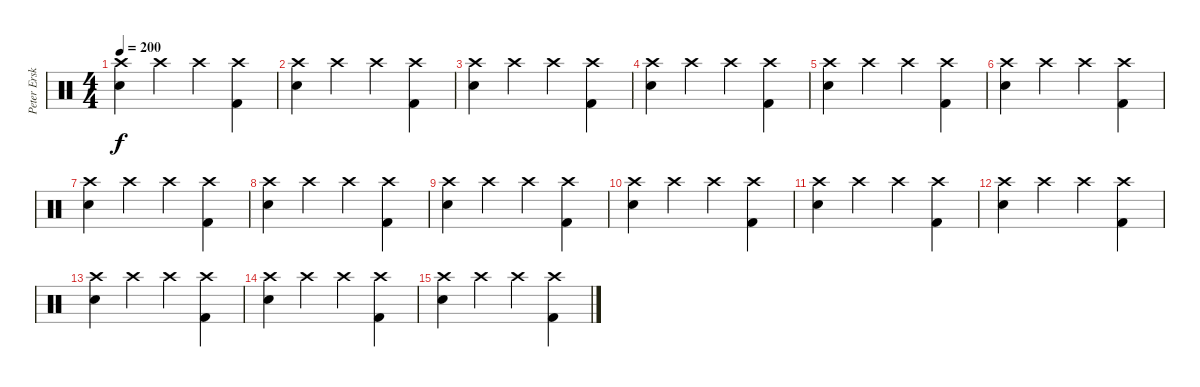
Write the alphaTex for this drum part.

\track ("Peter Erskine" "Peter Ersk") {instrument percussion}
\staff {score}
\articulation defaults
\ts (4 4)
\tempo 200
\clef neutral
\ks c
("Crash high (hit)" "Snare (hit) 2").4{dy f} "Crash high (hit)".4 "Crash high (hit)".4 ("Crash high (hit)" "Kick (hit) 2").4 |
("Crash high (hit)" "Snare (hit) 2").4 "Crash high (hit)".4 "Crash high (hit)".4 ("Crash high (hit)" "Kick (hit) 2").4 |
("Crash high (hit)" "Snare (hit) 2").4 "Crash high (hit)".4 "Crash high (hit)".4 ("Crash high (hit)" "Kick (hit) 2").4 |
("Crash high (hit)" "Snare (hit) 2").4 "Crash high (hit)".4 "Crash high (hit)".4 ("Crash high (hit)" "Kick (hit) 2").4 |
("Crash high (hit)" "Snare (hit) 2").4 "Crash high (hit)".4 "Crash high (hit)".4 ("Crash high (hit)" "Kick (hit) 2").4 |
("Crash high (hit)" "Snare (hit) 2").4 "Crash high (hit)".4 "Crash high (hit)".4 ("Crash high (hit)" "Kick (hit) 2").4 |
("Crash high (hit)" "Snare (hit) 2").4 "Crash high (hit)".4 "Crash high (hit)".4 ("Crash high (hit)" "Kick (hit) 2").4 |
("Crash high (hit)" "Snare (hit) 2").4 "Crash high (hit)".4 "Crash high (hit)".4 ("Crash high (hit)" "Kick (hit) 2").4 |
("Crash high (hit)" "Snare (hit) 2").4 "Crash high (hit)".4 "Crash high (hit)".4 ("Crash high (hit)" "Kick (hit) 2").4 |
("Crash high (hit)" "Snare (hit) 2").4 "Crash high (hit)".4 "Crash high (hit)".4 ("Crash high (hit)" "Kick (hit) 2").4 |
("Crash high (hit)" "Snare (hit) 2").4 "Crash high (hit)".4 "Crash high (hit)".4 ("Crash high (hit)" "Kick (hit) 2").4 |
("Crash high (hit)" "Snare (hit) 2").4 "Crash high (hit)".4 "Crash high (hit)".4 ("Crash high (hit)" "Kick (hit) 2").4 |
("Crash high (hit)" "Snare (hit) 2").4 "Crash high (hit)".4 "Crash high (hit)".4 ("Crash high (hit)" "Kick (hit) 2").4 |
("Crash high (hit)" "Snare (hit) 2").4 "Crash high (hit)".4 "Crash high (hit)".4 ("Crash high (hit)" "Kick (hit) 2").4 |
("Crash high (hit)" "Snare (hit) 2").4 "Crash high (hit)".4 "Crash high (hit)".4 ("Crash high (hit)" "Kick (hit) 2").4
